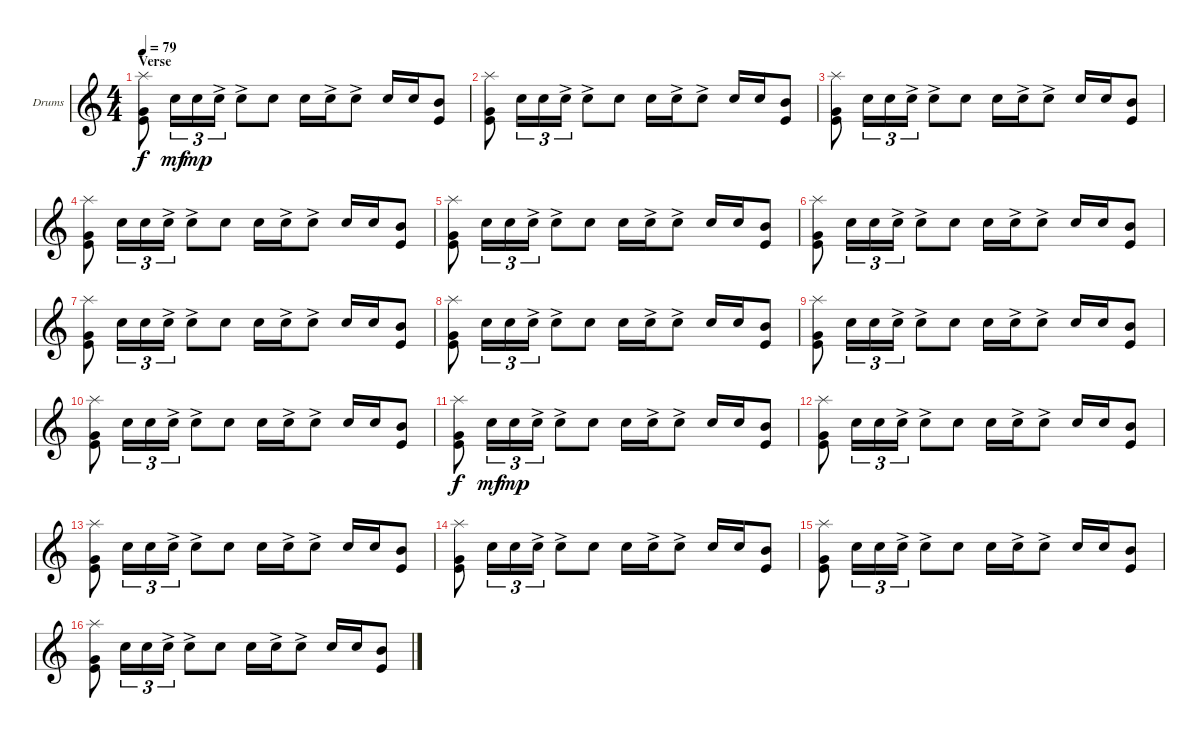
\defaultSystemsLayout 4
\bracketExtendMode groupsimilarinstruments
\firstSystemTrackNameOrientation horizontal
\otherSystemsTrackNameOrientation horizontal
\track ("Dom" "Drums") {instrument percussion}
\staff {score}
\articulation defaults
\ts (4 4)
\section ("" "Verse")
\tempo 79
\clef g2
\ks c
("Splash (hit)" "Kick (hit)" "Very Low Tom (hit)").8{dy f} "Snare (hit) 2".16{tu (3 2) dy mf} "Snare (hit) 2".16{tu (3 2) dy mp} "Snare (hit) 2"{ac}.16{tu (3 2)} "Snare (hit) 2"{ac}.8 "Snare (hit) 2".8 "Snare (hit) 2".16 "Snare (hit) 2"{ac}.16 "Snare (hit) 2"{ac}.8 "Snare (hit) 2".16 "Snare (hit) 2".16 ("Kick (hit)" "Mid Tom (hit)").8 |
("Splash (hit)" "Kick (hit)" "Very Low Tom (hit)").8 "Snare (hit) 2".16{tu (3 2)} "Snare (hit) 2".16{tu (3 2)} "Snare (hit) 2"{ac}.16{tu (3 2)} "Snare (hit) 2"{ac}.8 "Snare (hit) 2".8 "Snare (hit) 2".16 "Snare (hit) 2"{ac}.16 "Snare (hit) 2"{ac}.8 "Snare (hit) 2".16 "Snare (hit) 2".16 ("Kick (hit)" "Mid Tom (hit)").8 |
("Splash (hit)" "Kick (hit)" "Very Low Tom (hit)").8 "Snare (hit) 2".16{tu (3 2)} "Snare (hit) 2".16{tu (3 2)} "Snare (hit) 2"{ac}.16{tu (3 2)} "Snare (hit) 2"{ac}.8 "Snare (hit) 2".8 "Snare (hit) 2".16 "Snare (hit) 2"{ac}.16 "Snare (hit) 2"{ac}.8 "Snare (hit) 2".16 "Snare (hit) 2".16 ("Kick (hit)" "Mid Tom (hit)").8 |
("Splash (hit)" "Kick (hit)" "Very Low Tom (hit)").8 "Snare (hit) 2".16{tu (3 2)} "Snare (hit) 2".16{tu (3 2)} "Snare (hit) 2"{ac}.16{tu (3 2)} "Snare (hit) 2"{ac}.8 "Snare (hit) 2".8 "Snare (hit) 2".16 "Snare (hit) 2"{ac}.16 "Snare (hit) 2"{ac}.8 "Snare (hit) 2".16 "Snare (hit) 2".16 ("Kick (hit)" "Mid Tom (hit)").8 |
("Splash (hit)" "Kick (hit)" "Very Low Tom (hit)").8 "Snare (hit) 2".16{tu (3 2)} "Snare (hit) 2".16{tu (3 2)} "Snare (hit) 2"{ac}.16{tu (3 2)} "Snare (hit) 2"{ac}.8 "Snare (hit) 2".8 "Snare (hit) 2".16 "Snare (hit) 2"{ac}.16 "Snare (hit) 2"{ac}.8 "Snare (hit) 2".16 "Snare (hit) 2".16 ("Kick (hit)" "Mid Tom (hit)").8 |
("Splash (hit)" "Kick (hit)" "Very Low Tom (hit)").8 "Snare (hit) 2".16{tu (3 2)} "Snare (hit) 2".16{tu (3 2)} "Snare (hit) 2"{ac}.16{tu (3 2)} "Snare (hit) 2"{ac}.8 "Snare (hit) 2".8 "Snare (hit) 2".16 "Snare (hit) 2"{ac}.16 "Snare (hit) 2"{ac}.8 "Snare (hit) 2".16 "Snare (hit) 2".16 ("Kick (hit)" "Mid Tom (hit)").8 |
("Splash (hit)" "Kick (hit)" "Very Low Tom (hit)").8 "Snare (hit) 2".16{tu (3 2)} "Snare (hit) 2".16{tu (3 2)} "Snare (hit) 2"{ac}.16{tu (3 2)} "Snare (hit) 2"{ac}.8 "Snare (hit) 2".8 "Snare (hit) 2".16 "Snare (hit) 2"{ac}.16 "Snare (hit) 2"{ac}.8 "Snare (hit) 2".16 "Snare (hit) 2".16 ("Kick (hit)" "Mid Tom (hit)").8 |
("Splash (hit)" "Kick (hit)" "Very Low Tom (hit)").8 "Snare (hit) 2".16{tu (3 2)} "Snare (hit) 2".16{tu (3 2)} "Snare (hit) 2"{ac}.16{tu (3 2)} "Snare (hit) 2"{ac}.8 "Snare (hit) 2".8 "Snare (hit) 2".16 "Snare (hit) 2"{ac}.16 "Snare (hit) 2"{ac}.8 "Snare (hit) 2".16 "Snare (hit) 2".16 ("Kick (hit)" "Mid Tom (hit)").8 |
("Splash (hit)" "Kick (hit)" "Very Low Tom (hit)").8 "Snare (hit) 2".16{tu (3 2)} "Snare (hit) 2".16{tu (3 2)} "Snare (hit) 2"{ac}.16{tu (3 2)} "Snare (hit) 2"{ac}.8 "Snare (hit) 2".8 "Snare (hit) 2".16 "Snare (hit) 2"{ac}.16 "Snare (hit) 2"{ac}.8 "Snare (hit) 2".16 "Snare (hit) 2".16 ("Kick (hit)" "Mid Tom (hit)").8 |
("Splash (hit)" "Kick (hit)" "Very Low Tom (hit)").8 "Snare (hit) 2".16{tu (3 2)} "Snare (hit) 2".16{tu (3 2)} "Snare (hit) 2"{ac}.16{tu (3 2)} "Snare (hit) 2"{ac}.8 "Snare (hit) 2".8 "Snare (hit) 2".16 "Snare (hit) 2"{ac}.16 "Snare (hit) 2"{ac}.8 "Snare (hit) 2".16 "Snare (hit) 2".16 ("Kick (hit)" "Mid Tom (hit)").8 |
("Splash (hit)" "Kick (hit)" "Very Low Tom (hit)").8{dy f} "Snare (hit) 2".16{tu (3 2) dy mf} "Snare (hit) 2".16{tu (3 2) dy mp} "Snare (hit) 2"{ac}.16{tu (3 2)} "Snare (hit) 2"{ac}.8 "Snare (hit) 2".8 "Snare (hit) 2".16 "Snare (hit) 2"{ac}.16 "Snare (hit) 2"{ac}.8 "Snare (hit) 2".16 "Snare (hit) 2".16 ("Kick (hit)" "Mid Tom (hit)").8 |
("Splash (hit)" "Kick (hit)" "Very Low Tom (hit)").8 "Snare (hit) 2".16{tu (3 2)} "Snare (hit) 2".16{tu (3 2)} "Snare (hit) 2"{ac}.16{tu (3 2)} "Snare (hit) 2"{ac}.8 "Snare (hit) 2".8 "Snare (hit) 2".16 "Snare (hit) 2"{ac}.16 "Snare (hit) 2"{ac}.8 "Snare (hit) 2".16 "Snare (hit) 2".16 ("Kick (hit)" "Mid Tom (hit)").8 |
("Splash (hit)" "Kick (hit)" "Very Low Tom (hit)").8 "Snare (hit) 2".16{tu (3 2)} "Snare (hit) 2".16{tu (3 2)} "Snare (hit) 2"{ac}.16{tu (3 2)} "Snare (hit) 2"{ac}.8 "Snare (hit) 2".8 "Snare (hit) 2".16 "Snare (hit) 2"{ac}.16 "Snare (hit) 2"{ac}.8 "Snare (hit) 2".16 "Snare (hit) 2".16 ("Kick (hit)" "Mid Tom (hit)").8 |
("Splash (hit)" "Kick (hit)" "Very Low Tom (hit)").8 "Snare (hit) 2".16{tu (3 2)} "Snare (hit) 2".16{tu (3 2)} "Snare (hit) 2"{ac}.16{tu (3 2)} "Snare (hit) 2"{ac}.8 "Snare (hit) 2".8 "Snare (hit) 2".16 "Snare (hit) 2"{ac}.16 "Snare (hit) 2"{ac}.8 "Snare (hit) 2".16 "Snare (hit) 2".16 ("Kick (hit)" "Mid Tom (hit)").8 |
("Splash (hit)" "Kick (hit)" "Very Low Tom (hit)").8 "Snare (hit) 2".16{tu (3 2)} "Snare (hit) 2".16{tu (3 2)} "Snare (hit) 2"{ac}.16{tu (3 2)} "Snare (hit) 2"{ac}.8 "Snare (hit) 2".8 "Snare (hit) 2".16 "Snare (hit) 2"{ac}.16 "Snare (hit) 2"{ac}.8 "Snare (hit) 2".16 "Snare (hit) 2".16 ("Kick (hit)" "Mid Tom (hit)").8 |
("Splash (hit)" "Kick (hit)" "Very Low Tom (hit)").8 "Snare (hit) 2".16{tu (3 2)} "Snare (hit) 2".16{tu (3 2)} "Snare (hit) 2"{ac}.16{tu (3 2)} "Snare (hit) 2"{ac}.8 "Snare (hit) 2".8 "Snare (hit) 2".16 "Snare (hit) 2"{ac}.16 "Snare (hit) 2"{ac}.8 "Snare (hit) 2".16 "Snare (hit) 2".16 ("Kick (hit)" "Mid Tom (hit)").8
